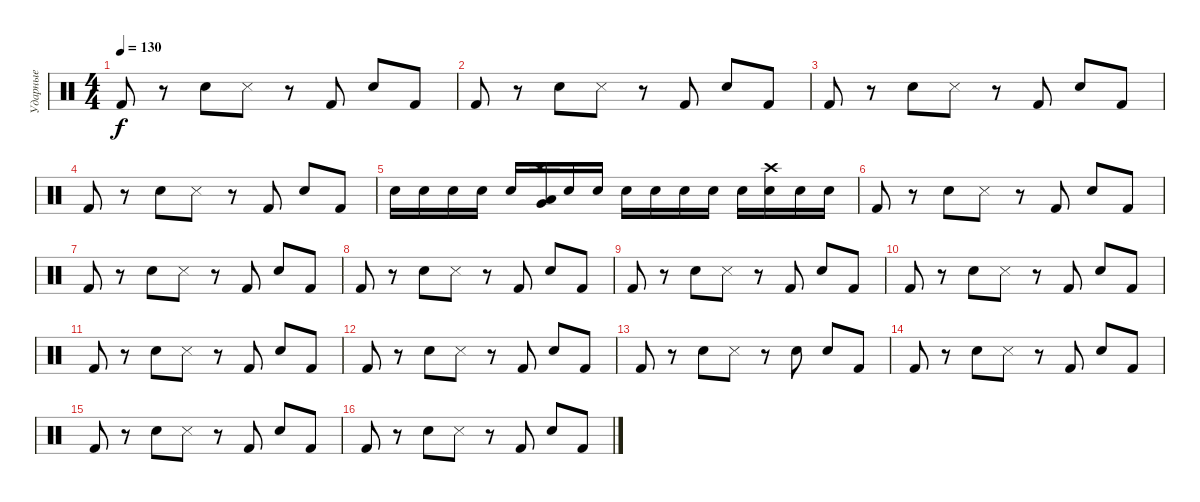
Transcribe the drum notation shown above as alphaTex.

\track ("Ударные" "Ударные") {instrument percussion}
\staff {score}
\articulation defaults
\ts (4 4)
\tempo 130
\clef neutral
\ks c "Kick (hit) 2".8{dy f}
r.8 "Electric Snare (hit)".8 "Snare (side stick) 3".8 r.8 "Kick (hit) 2".8 "Electric Snare (hit)".8 "Kick (hit) 2".8 |
"Kick (hit) 2".8 r.8 "Electric Snare (hit)".8 "Snare (side stick) 3".8 r.8 "Kick (hit) 2".8 "Electric Snare (hit)".8 "Kick (hit) 2".8 |
"Kick (hit) 2".8 r.8 "Electric Snare (hit)".8 "Snare (side stick) 3".8 r.8 "Kick (hit) 2".8 "Electric Snare (hit)".8 "Kick (hit) 2".8 |
"Kick (hit) 2".8 r.8 "Electric Snare (hit)".8 "Snare (side stick) 3".8 r.8 "Kick (hit) 2".8 "Electric Snare (hit)".8 "Kick (hit) 2".8 |
"Electric Snare (hit)".16 "Electric Snare (hit)".16 "Electric Snare (hit)".16 "Snare (hit) 2".16 "Electric Snare (hit)".16 ("Very Low Tom (hit)" "Crash high (hit)" "Low Tom (hit)").16 "Electric Snare (hit)".16 "Electric Snare (hit)".16 "Electric Snare (hit)".16 "Electric Snare (hit)".16 "Electric Snare (hit)".16 "Electric Snare (hit)".16 "Electric Snare (hit)".16 ("Crash high (hit)" "Electric Snare (hit)").16 "Electric Snare (hit)".16 "Electric Snare (hit)".16 |
"Kick (hit) 2".8 r.8 "Electric Snare (hit)".8 "Snare (side stick) 3".8 r.8 "Kick (hit) 2".8 "Electric Snare (hit)".8 "Kick (hit) 2".8 |
"Kick (hit) 2".8 r.8 "Electric Snare (hit)".8 "Snare (side stick) 3".8 r.8 "Kick (hit) 2".8 "Electric Snare (hit)".8 "Kick (hit) 2".8 |
"Kick (hit) 2".8 r.8 "Electric Snare (hit)".8 "Snare (side stick) 3".8 r.8 "Kick (hit) 2".8 "Electric Snare (hit)".8 "Kick (hit) 2".8 |
"Kick (hit) 2".8 r.8 "Electric Snare (hit)".8 "Snare (side stick) 3".8 r.8 "Kick (hit) 2".8 "Electric Snare (hit)".8 "Kick (hit) 2".8 |
"Kick (hit) 2".8 r.8 "Electric Snare (hit)".8 "Snare (side stick) 3".8 r.8 "Kick (hit) 2".8 "Electric Snare (hit)".8 "Kick (hit) 2".8 |
"Kick (hit) 2".8 r.8 "Electric Snare (hit)".8 "Snare (side stick) 3".8 r.8 "Kick (hit) 2".8 "Electric Snare (hit)".8 "Kick (hit) 2".8 |
"Kick (hit) 2".8 r.8 "Electric Snare (hit)".8 "Snare (side stick) 3".8 r.8 "Kick (hit) 2".8 "Electric Snare (hit)".8 "Kick (hit) 2".8 |
"Kick (hit) 2".8 r.8 "Electric Snare (hit)".8 "Snare (side stick) 3".8 r.8 "Electric Snare (hit)".8 "Electric Snare (hit)".8 "Kick (hit) 2".8 |
"Kick (hit) 2".8 r.8 "Electric Snare (hit)".8 "Snare (side stick) 3".8 r.8 "Kick (hit) 2".8 "Electric Snare (hit)".8 "Kick (hit) 2".8 |
"Kick (hit) 2".8 r.8 "Electric Snare (hit)".8 "Snare (side stick) 3".8 r.8 "Kick (hit) 2".8 "Electric Snare (hit)".8 "Kick (hit) 2".8 |
"Kick (hit) 2".8 r.8 "Electric Snare (hit)".8 "Snare (side stick) 3".8 r.8 "Kick (hit) 2".8 "Electric Snare (hit)".8 "Kick (hit) 2".8
